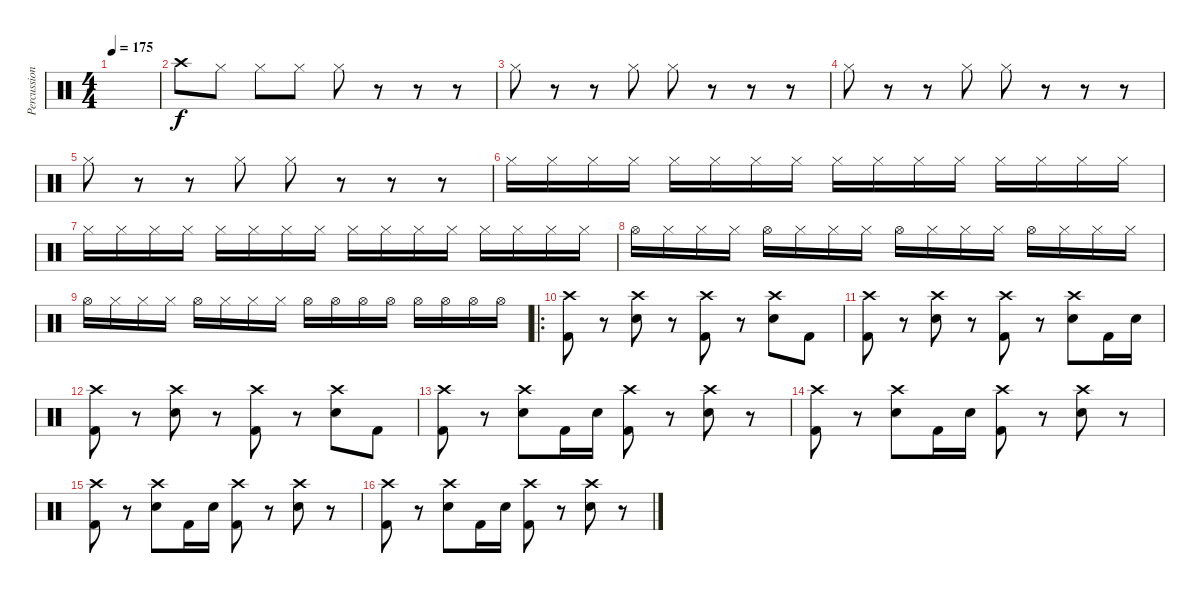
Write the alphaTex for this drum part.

\track ("Percussion" "Percussion") {instrument percussion}
\staff {score}
\articulation defaults
\ts (4 4)
\tempo 175
\clef neutral
\ks c
|
"Crash high (hit)".8 "Hi-Hat (closed)".8 "Hi-Hat (closed)".8 "Hi-Hat (closed)".8 "Hi-Hat (closed)".8 r.8 r.8 r.8 |
"Hi-Hat (closed)".8 r.8 r.8 "Hi-Hat (closed)".8 "Hi-Hat (closed)".8 r.8 r.8 r.8 |
"Hi-Hat (closed)".8 r.8 r.8 "Hi-Hat (closed)".8 "Hi-Hat (closed)".8 r.8 r.8 r.8 |
"Hi-Hat (closed)".8 r.8 r.8 "Hi-Hat (closed)".8 "Hi-Hat (closed)".8 r.8 r.8 r.8 |
"Hi-Hat (closed)".16 "Hi-Hat (closed)".16 "Hi-Hat (closed)".16 "Hi-Hat (closed)".16 "Hi-Hat (closed)".16 "Hi-Hat (closed)".16 "Hi-Hat (closed)".16 "Hi-Hat (closed)".16 "Hi-Hat (closed)".16 "Hi-Hat (closed)".16 "Hi-Hat (closed)".16 "Hi-Hat (closed)".16 "Hi-Hat (closed)".16 "Hi-Hat (closed)".16 "Hi-Hat (closed)".16 "Hi-Hat (closed)".16 |
"Hi-Hat (closed)".16 "Hi-Hat (closed)".16 "Hi-Hat (closed)".16 "Hi-Hat (closed)".16 "Hi-Hat (closed)".16 "Hi-Hat (closed)".16 "Hi-Hat (closed)".16 "Hi-Hat (closed)".16 "Hi-Hat (closed)".16 "Hi-Hat (closed)".16 "Hi-Hat (closed)".16 "Hi-Hat (closed)".16 "Hi-Hat (closed)".16 "Hi-Hat (closed)".16 "Hi-Hat (closed)".16 "Hi-Hat (closed)".16 |
"Hi-Hat (open)".16 "Hi-Hat (closed)".16 "Hi-Hat (closed)".16 "Hi-Hat (closed)".16 "Hi-Hat (open)".16 "Hi-Hat (closed)".16 "Hi-Hat (closed)".16 "Hi-Hat (closed)".16 "Hi-Hat (open)".16 "Hi-Hat (closed)".16 "Hi-Hat (closed)".16 "Hi-Hat (closed)".16 "Hi-Hat (open)".16 "Hi-Hat (closed)".16 "Hi-Hat (closed)".16 "Hi-Hat (closed)".16 |
"Hi-Hat (open)".16 "Hi-Hat (closed)".16 "Hi-Hat (closed)".16 "Hi-Hat (closed)".16 "Hi-Hat (open)".16 "Hi-Hat (closed)".16 "Hi-Hat (closed)".16 "Hi-Hat (closed)".16 "Hi-Hat (open)".16 "Hi-Hat (open)".16 "Hi-Hat (open)".16 "Hi-Hat (open)".16 "Hi-Hat (open)".16 "Hi-Hat (open)".16 "Hi-Hat (open)".16 "Hi-Hat (open)".16 |
\ro
("Crash high (hit)" "Kick (hit) 2").8 r.8 ("Crash high (hit)" "Electric Snare (hit)").8 r.8 ("Crash high (hit)" "Kick (hit) 2").8 r.8 ("Crash high (hit)" "Electric Snare (hit)").8 "Kick (hit) 2".8 |
("Crash high (hit)" "Kick (hit) 2").8 r.8 ("Crash high (hit)" "Electric Snare (hit)").8 r.8 ("Crash high (hit)" "Kick (hit) 2").8 r.8 ("Crash high (hit)" "Electric Snare (hit)").8 "Kick (hit) 2".16 "Electric Snare (hit)".16 |
("Crash high (hit)" "Kick (hit) 2").8 r.8 ("Crash high (hit)" "Electric Snare (hit)").8 r.8 ("Crash high (hit)" "Kick (hit) 2").8 r.8 ("Crash high (hit)" "Electric Snare (hit)").8 "Kick (hit) 2".8 |
("Crash high (hit)" "Kick (hit) 2").8 r.8 ("Crash high (hit)" "Electric Snare (hit)").8 "Kick (hit) 2".16 "Electric Snare (hit)".16 ("Crash high (hit)" "Kick (hit) 2").8 r.8 ("Crash high (hit)" "Electric Snare (hit)").8 r.8 |
("Crash high (hit)" "Kick (hit) 2").8 r.8 ("Crash high (hit)" "Electric Snare (hit)").8 "Kick (hit) 2".16 "Electric Snare (hit)".16 ("Crash high (hit)" "Kick (hit) 2").8 r.8 ("Crash high (hit)" "Electric Snare (hit)").8 r.8 |
("Crash high (hit)" "Kick (hit) 2").8 r.8 ("Crash high (hit)" "Electric Snare (hit)").8 "Kick (hit) 2".16 "Electric Snare (hit)".16 ("Crash high (hit)" "Kick (hit) 2").8 r.8 ("Crash high (hit)" "Electric Snare (hit)").8 r.8 |
("Crash high (hit)" "Kick (hit) 2").8 r.8 ("Crash high (hit)" "Electric Snare (hit)").8 "Kick (hit) 2".16 "Electric Snare (hit)".16 ("Crash high (hit)" "Kick (hit) 2").8 r.8 ("Crash high (hit)" "Electric Snare (hit)").8 r.8
